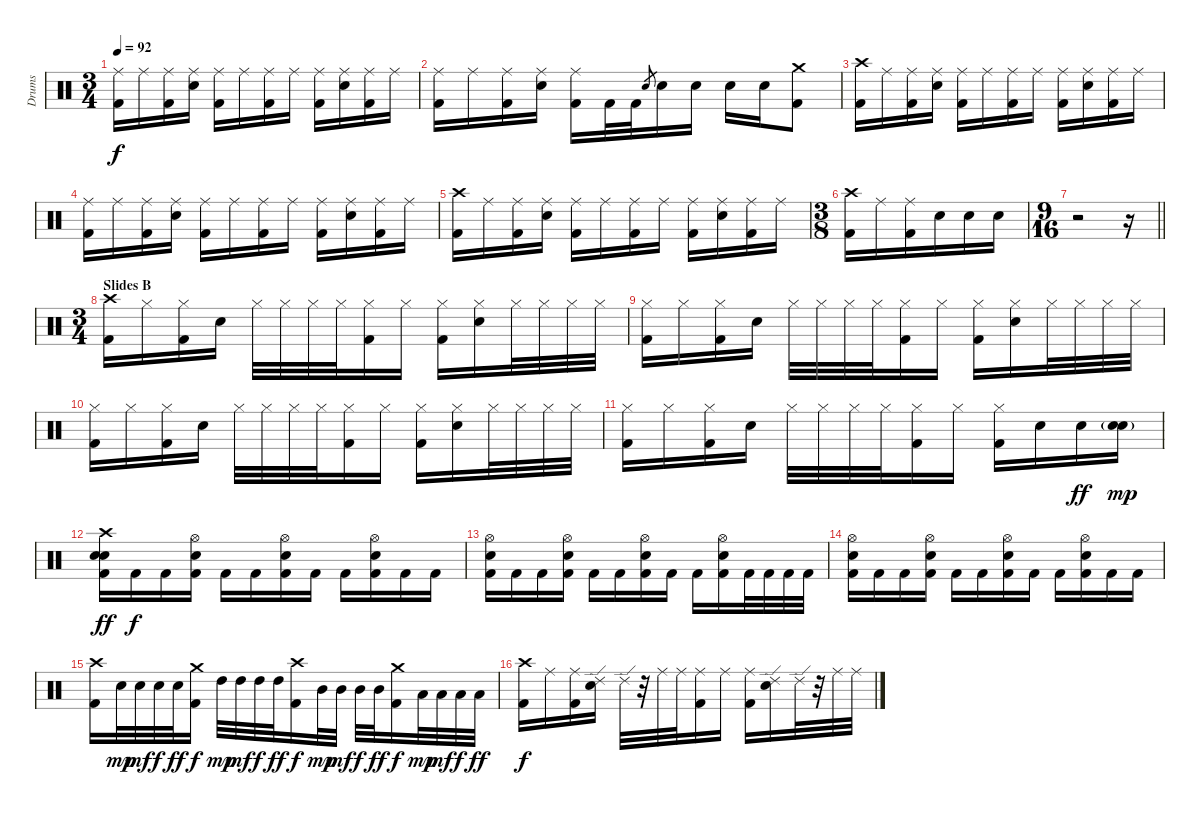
\track ("Drums" "Drums") {instrument percussion}
\staff {score}
\articulation defaults
\ts (3 4)
\tempo 92
\clef neutral
\ks c
("Ride (middle)" "Kick (hit) 2").16{dy f} "Ride (middle)".16 ("Ride (middle)" "Kick (hit) 2").16 ("Ride (middle)" "Electric Snare (hit)").16 ("Ride (middle)" "Kick (hit) 2").16 "Ride (middle)".16 ("Ride (middle)" "Kick (hit) 2").16 "Ride (middle)".16 ("Ride (middle)" "Kick (hit) 2").16 ("Ride (middle)" "Electric Snare (hit)").16 ("Ride (middle)" "Kick (hit) 2").16 "Ride (middle)".16 |
("Ride (middle)" "Kick (hit) 2").16 "Ride (middle)".16 ("Ride (middle)" "Kick (hit) 2").16 ("Ride (middle)" "Electric Snare (hit)").16 ("Ride (middle)" "Kick (hit) 2").16 "Kick (hit) 2".32 "Kick (hit) 2".32 "Electric Snare (hit)".8{gr} "Electric Snare (hit)".16 "Electric Snare (hit)".16 "Electric Snare (hit)".16 "Electric Snare (hit)".16 ("Crash medium (hit)" "Kick (hit) 2").8 |
("Crash high (hit)" "Kick (hit) 2").16 "Ride (middle)".16 ("Ride (middle)" "Kick (hit) 2").16 ("Ride (middle)" "Electric Snare (hit)").16 ("Ride (middle)" "Kick (hit) 2").16 "Ride (middle)".16 ("Ride (middle)" "Kick (hit) 2").16 "Ride (middle)".16 ("Ride (middle)" "Kick (hit) 2").16 ("Ride (middle)" "Electric Snare (hit)").16 ("Ride (middle)" "Kick (hit) 2").16 "Ride (middle)".16 |
("Ride (middle)" "Kick (hit) 2").16 "Ride (middle)".16 ("Ride (middle)" "Kick (hit) 2").16 ("Ride (middle)" "Electric Snare (hit)").16 ("Ride (middle)" "Kick (hit) 2").16 "Ride (middle)".16 ("Ride (middle)" "Kick (hit) 2").16 "Ride (middle)".16 ("Ride (middle)" "Kick (hit) 2").16 ("Ride (middle)" "Electric Snare (hit)").16 ("Ride (middle)" "Kick (hit) 2").16 "Ride (middle)".16 |
("Crash high (hit)" "Kick (hit) 2").16 "Ride (middle)".16 ("Ride (middle)" "Kick (hit) 2").16 ("Ride (middle)" "Electric Snare (hit)").16 ("Ride (middle)" "Kick (hit) 2").16 "Ride (middle)".16 ("Ride (middle)" "Kick (hit) 2").16 "Ride (middle)".16 ("Ride (middle)" "Kick (hit) 2").16 ("Ride (middle)" "Electric Snare (hit)").16 ("Ride (middle)" "Kick (hit) 2").16 "Ride (middle)".16 |
\ts (3 8)
("Crash high (hit)" "Kick (hit) 2").16 "Ride (middle)".16 ("Ride (middle)" "Kick (hit) 2").16 "Electric Snare (hit)".16 "Electric Snare (hit)".16 "Electric Snare (hit)".16 |
\ts (9 16)
\barLineRight lightlight
r.2 r.16 |
\ts (3 4)
\section ("" "Slides B")
("Crash high (hit)" "Kick (hit) 2").16 "Hi-Hat (closed)".16 ("Hi-Hat (closed)" "Kick (hit) 2").16 "Electric Snare (hit)".16 "Hi-Hat (closed)".32 "Hi-Hat (closed)".32 "Hi-Hat (closed)".32 "Hi-Hat (closed)".32 ("Hi-Hat (closed)" "Kick (hit) 2").16 "Hi-Hat (closed)".16 ("Hi-Hat (closed)" "Kick (hit) 2").16 ("Hi-Hat (closed)" "Electric Snare (hit)").16 "Hi-Hat (closed)".32 "Hi-Hat (closed)".32 "Hi-Hat (closed)".32 "Hi-Hat (closed)".32 |
("Hi-Hat (closed)" "Kick (hit) 2").16 "Hi-Hat (closed)".16 ("Hi-Hat (closed)" "Kick (hit) 2").16 "Electric Snare (hit)".16 "Hi-Hat (closed)".32 "Hi-Hat (closed)".32 "Hi-Hat (closed)".32 "Hi-Hat (closed)".32 ("Hi-Hat (closed)" "Kick (hit) 2").16 "Hi-Hat (closed)".16 ("Hi-Hat (closed)" "Kick (hit) 2").16 ("Hi-Hat (closed)" "Electric Snare (hit)").16 "Hi-Hat (closed)".32 "Hi-Hat (closed)".32 "Hi-Hat (closed)".32 "Hi-Hat (closed)".32 |
("Hi-Hat (closed)" "Kick (hit) 2").16 "Hi-Hat (closed)".16 ("Hi-Hat (closed)" "Kick (hit) 2").16 "Electric Snare (hit)".16 "Hi-Hat (closed)".32 "Hi-Hat (closed)".32 "Hi-Hat (closed)".32 "Hi-Hat (closed)".32 ("Hi-Hat (closed)" "Kick (hit) 2").16 "Hi-Hat (closed)".16 ("Hi-Hat (closed)" "Kick (hit) 2").16 ("Hi-Hat (closed)" "Electric Snare (hit)").16 "Hi-Hat (closed)".32 "Hi-Hat (closed)".32 "Hi-Hat (closed)".32 "Hi-Hat (closed)".32 |
("Hi-Hat (closed)" "Kick (hit) 2").16 "Hi-Hat (closed)".16 ("Hi-Hat (closed)" "Kick (hit) 2").16 "Electric Snare (hit)".16 "Hi-Hat (closed)".32 "Hi-Hat (closed)".32 "Hi-Hat (closed)".32 "Hi-Hat (closed)".32 ("Hi-Hat (closed)" "Kick (hit) 2").16 "Hi-Hat (closed)".16 ("Hi-Hat (closed)" "Kick (hit) 2").16 "Electric Snare (hit)".16 "Electric Snare (hit)".16{dy ff} ("Electric Snare (hit)" "Electric Snare (hit)"{g}).16{dy mp} |
("Crash high (hit)" "Electric Snare (hit)" "Electric Snare (hit)" "Kick (hit) 2").16{dy ff} "Kick (hit) 2".16{dy f} "Kick (hit) 2".16 ("Hi-Hat (open)" "Electric Snare (hit)" "Kick (hit) 2").16 "Kick (hit) 2".16 "Kick (hit) 2".16 ("Hi-Hat (open)" "Electric Snare (hit)" "Kick (hit) 2").16 "Kick (hit) 2".16 "Kick (hit) 2".16 ("Hi-Hat (open)" "Electric Snare (hit)" "Kick (hit) 2").16 "Kick (hit) 2".16 "Kick (hit) 2".16 |
("Hi-Hat (open)" "Electric Snare (hit)" "Kick (hit) 2").16 "Kick (hit) 2".16 "Kick (hit) 2".16 ("Hi-Hat (open)" "Electric Snare (hit)" "Kick (hit) 2").16 "Kick (hit) 2".16 "Kick (hit) 2".16 ("Hi-Hat (open)" "Electric Snare (hit)" "Kick (hit) 2").16 "Kick (hit) 2".16 "Kick (hit) 2".16 ("Hi-Hat (open)" "Electric Snare (hit)" "Kick (hit) 2").16 "Kick (hit) 2".32 "Kick (hit) 2".32 "Kick (hit) 2".32 "Kick (hit) 2".32 |
("Hi-Hat (open)" "Electric Snare (hit)" "Kick (hit) 2").16 "Kick (hit) 2".16 "Kick (hit) 2".16 ("Hi-Hat (open)" "Electric Snare (hit)" "Kick (hit) 2").16 "Kick (hit) 2".16 "Kick (hit) 2".16 ("Hi-Hat (open)" "Electric Snare (hit)" "Kick (hit) 2").16 "Kick (hit) 2".16 "Kick (hit) 2".16 ("Hi-Hat (open)" "Electric Snare (hit)" "Kick (hit) 2").16 "Kick (hit) 2".16 "Kick (hit) 2".16 |
("Crash high (hit)" "Kick (hit) 2").16 "Electric Snare (hit)".32{dy mp} "Electric Snare (hit)".32{dy mf} "Electric Snare (hit)".32{dy f} "Electric Snare (hit)".32{dy ff} ("Crash medium (hit)" "Kick (hit) 2").16{dy f} "High Tom (hit)".32{dy mp} "High Tom (hit)".32{dy mf} "High Tom (hit)".32{dy f} "High Tom (hit)".32{dy ff} ("Crash high (hit)" "Kick (hit) 2").16{dy f} "Mid Tom (hit)".32{dy mp} "Mid Tom (hit)".32{dy mf} "Mid Tom (hit)".32{dy f} "Mid Tom (hit)".32{dy ff} ("Crash medium (hit)" "Kick (hit) 2").16{dy f} "Low Tom (hit)".32{dy mp} "Low Tom (hit)".32{dy mf} "Low Tom (hit)".32{dy f} "Low Tom (hit)".32{dy ff} |
("Crash high (hit)" "Kick (hit) 2").16{dy f} "Ride (middle)".16 ("Ride (middle)" "Kick (hit) 2").16 ("Ride (edge) 2" "Electric Snare (hit)").16 "Ride (edge) 2".32 r.32 "Ride (middle)".32 "Ride (middle)".32 ("Ride (middle)" "Kick (hit) 2").16 "Ride (middle)".16 ("Ride (middle)" "Kick (hit) 2").16 ("Ride (edge) 2" "Electric Snare (hit)").16 "Ride (edge) 2".32 r.32 "Ride (middle)".32 "Ride (middle)".32
